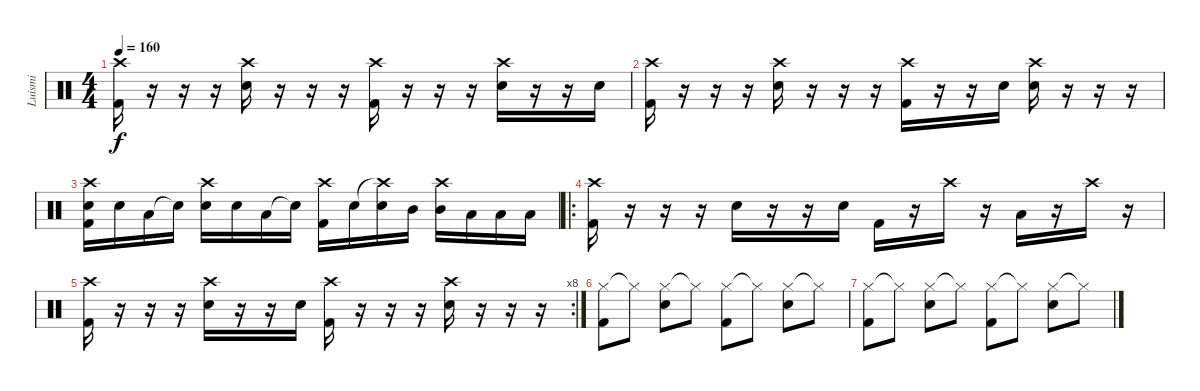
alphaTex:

\track ("Luismi" "Luismi") {instrument percussion}
\staff {score}
\articulation defaults
\ts (4 4)
\tempo 160
\clef neutral
\ks c
("Crash high (hit)" "Kick (hit) 2").16{dy f} r.16 r.16 r.16 ("Crash high (hit)" "Electric Snare (hit)").16 r.16 r.16 r.16 ("Crash high (hit)" "Kick (hit) 2").16 r.16 r.16 r.16 ("Crash high (hit)" "Electric Snare (hit)").16 r.16 r.16 "Electric Snare (hit)".16 |
("Crash high (hit)" "Kick (hit) 2").16 r.16 r.16 r.16 ("Crash high (hit)" "Electric Snare (hit)").16 r.16 r.16 r.16 ("Crash high (hit)" "Kick (hit) 2").16 r.16 r.16 "Electric Snare (hit)".16 ("Crash high (hit)" "Electric Snare (hit)").16 r.16 r.16 r.16 |
("Crash high (hit)" "Kick (hit) 2" "Electric Snare (hit)").16 "Electric Snare (hit)".16 "Low Tom (hit)".16 "Snare (hit)"{t}.16 ("Crash high (hit)" "Electric Snare (hit)").16 "Electric Snare (hit)".16 "Low Tom (hit)".16 "Snare (hit)"{t}.16 ("Crash high (hit)" "Kick (hit) 2").16 "Electric Snare (hit)".16 ("Crash high (hit)"{t} "Electric Snare (hit)").16 "Mid Tom (hit)".16 ("Crash high (hit)" "Mid Tom (hit)").16 "Low Tom (hit)".16 "Low Tom (hit)".16 "Low Tom (hit)".16 |
\ro
("Crash high (hit)" "Kick (hit) 2").16 r.16 r.16 r.16 "Electric Snare (hit)".16 r.16 r.16 "Electric Snare (hit)".16 "Kick (hit) 2".16 r.16 "Crash high (hit)".16 r.16 "Low Tom (hit)".16 r.16 "Crash high (hit)".16 r.16 |
\rc 8
("Crash high (hit)" "Kick (hit) 2").16 r.16 r.16 r.16 ("Crash high (hit)" "Electric Snare (hit)").16 r.16 r.16 "Electric Snare (hit)".16 ("Crash high (hit)" "Kick (hit) 2").16 r.16 r.16 r.16 ("Crash high (hit)" "Electric Snare (hit)").16 r.16 r.16 r.16 |
("Hi-Hat (closed)" "Kick (hit) 2").8 "Hi-Hat (closed)"{t}.8 ("Hi-Hat (closed)" "Electric Snare (hit)").8 "Hi-Hat (closed)"{t}.8 ("Hi-Hat (closed)" "Kick (hit) 2").8 "Hi-Hat (closed)"{t}.8 ("Hi-Hat (closed)" "Electric Snare (hit)").8 "Hi-Hat (closed)"{t}.8 |
("Hi-Hat (closed)" "Kick (hit) 2").8 "Hi-Hat (closed)"{t}.8 ("Hi-Hat (closed)" "Electric Snare (hit)").8 "Hi-Hat (closed)"{t}.8 ("Hi-Hat (closed)" "Kick (hit) 2").8 "Hi-Hat (closed)"{t}.8 ("Hi-Hat (closed)" "Electric Snare (hit)").8 "Hi-Hat (closed)"{t}.8
